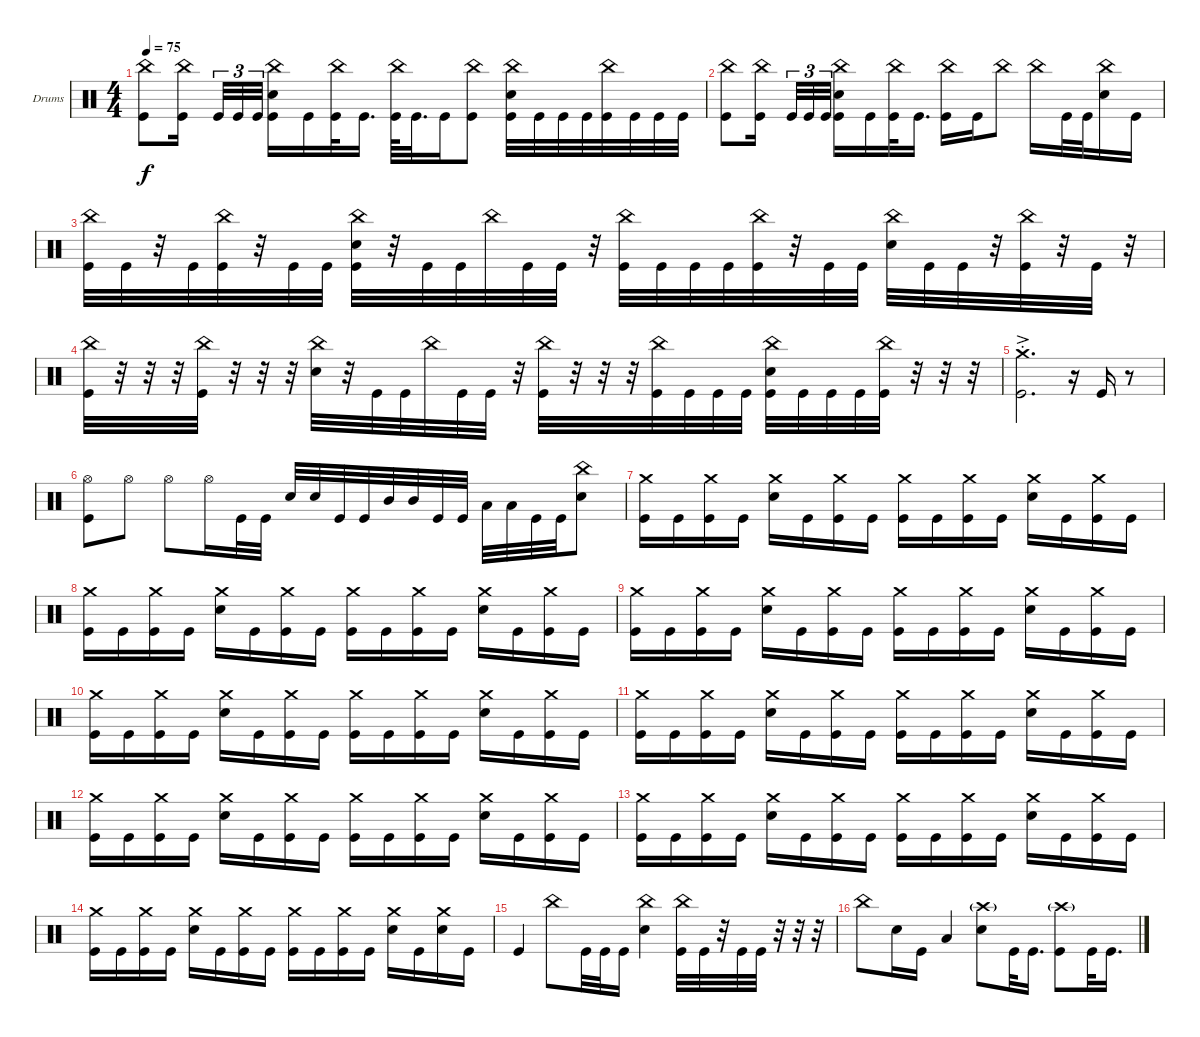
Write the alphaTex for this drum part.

\bracketExtendMode groupsimilarinstruments
\firstSystemTrackNameOrientation horizontal
\otherSystemsTrackNameOrientation horizontal
\track ("Drumkit" "Drums") {instrument percussion}
\staff {score}
\articulation defaults
\ts (4 4)
\beaming (8 2 2 2 2)
\tempo 75
\clef neutral
\ks c
("Kick (hit)" "China (hit)").8{dy f} ("Kick (hit)" "China (hit)").16 "Kick (hit)".32{tu (3 2)} "Kick (hit)".32{tu (3 2)} "Kick (hit)".32{tu (3 2)} ("Kick (hit)" "China (hit)" "Snare (hit) 2").16 "Kick (hit)".16 ("Kick (hit)" "China (hit)").32 "Kick (hit)".16{d} ("Kick (hit)" "China (hit)").64 "Kick (hit)".32{d} "Kick (hit)".16 ("Kick (hit)" "China (hit)").8 ("China (hit)" "Kick (hit)" "Snare (hit) 2").32 "Kick (hit)".32 "Kick (hit)".32 "Kick (hit)".32 ("Kick (hit)" "China (hit)").32 "Kick (hit)".32 "Kick (hit)".32 "Kick (hit)".32 |
("Kick (hit)" "China (hit)").8 ("Kick (hit)" "China (hit)").16 "Kick (hit)".32{tu (3 2)} "Kick (hit)".32{tu (3 2)} "Kick (hit)".32{tu (3 2)} ("Kick (hit)" "China (hit)" "Snare (hit) 2").16 "Kick (hit)".16 ("Kick (hit)" "China (hit)").32 "Kick (hit)".16{d} ("Kick (hit)" "China (hit)").16 "Kick (hit)".16 "China (hit)".8 "China (hit)".16 "Kick (hit)".32 "Kick (hit)".32 ("China (hit)" "Snare (hit) 2").16 "Kick (hit)".16 |
("Kick (hit)" "China (hit)").32 "Kick (hit)".32 r.32 "Kick (hit)".32 ("Kick (hit)" "China (hit)").32 r.32 "Kick (hit)".32 "Kick (hit)".32 ("Kick (hit)" "China (hit)" "Snare (hit) 2").32 r.32 "Kick (hit)".32 "Kick (hit)".32 "China (hit)".32 "Kick (hit)".32 "Kick (hit)".32 r.32 ("China (hit)" "Kick (hit)").32 "Kick (hit)".32 "Kick (hit)".32 "Kick (hit)".32 ("China (hit)" "Kick (hit)").32 r.32 "Kick (hit)".32 "Kick (hit)".32 ("China (hit)" "Snare (hit) 2").32 "Kick (hit)".32 "Kick (hit)".32 r.32 ("China (hit)" "Kick (hit)").32 r.32 "Kick (hit)".32 r.32 |
("Kick (hit)" "China (hit)").32 r.32 r.32 r.32 ("Kick (hit)" "China (hit)").32 r.32 r.32 r.32 ("China (hit)" "Snare (hit) 2").32 r.32 "Kick (hit)".32 "Kick (hit)".32 "China (hit)".32 "Kick (hit)".32 "Kick (hit)".32 r.32 ("China (hit)" "Kick (hit)").32 r.32 r.32 r.32 ("China (hit)" "Kick (hit)").32 "Kick (hit)".32 "Kick (hit)".32 "Kick (hit)".32 ("China (hit)" "Snare (hit) 2" "Kick (hit)").32 "Kick (hit)".32 "Kick (hit)".32 "Kick (hit)".32 ("China (hit)" "Kick (hit)").32 r.32 r.32 r.32 |
("Kick (hit)" "Crash medium (hit)"{ac st}).2{d} r.16 "Kick (hit)".16 r.8 |
("Kick (hit)" "Hi-Hat (open)").8 "Hi-Hat (open)".8 "Hi-Hat (open)".8 "Hi-Hat (open)".16 "Kick (hit)".32 "Kick (hit)".32 "Snare (hit) 2".32 "Snare (hit) 2".32 "Kick (hit)".32 "Kick (hit)".32 "Mid Tom (hit)".32 "Mid Tom (hit)".32 "Kick (hit)".32 "Kick (hit)".32 "Low Tom (hit)".32 "Low Tom (hit)".32 "Kick (hit)".32 "Kick (hit)".32 ("Snare (hit) 2" "China (hit)").8 |
("Kick (hit)" "Crash medium (hit)").16 "Kick (hit)".16 ("Kick (hit)" "Crash medium (hit)").16 "Kick (hit)".16 ("Snare (hit) 2" "Crash medium (hit)").16 "Kick (hit)".16 ("Kick (hit)" "Crash medium (hit)").16 "Kick (hit)".16 ("Kick (hit)" "Crash medium (hit)").16 "Kick (hit)".16 ("Kick (hit)" "Crash medium (hit)").16 "Kick (hit)".16 ("Snare (hit) 2" "Crash medium (hit)").16 "Kick (hit)".16 ("Kick (hit)" "Crash medium (hit)").16 "Kick (hit)".16 |
("Kick (hit)" "Crash medium (hit)").16 "Kick (hit)".16 ("Kick (hit)" "Crash medium (hit)").16 "Kick (hit)".16 ("Snare (hit) 2" "Crash medium (hit)").16 "Kick (hit)".16 ("Kick (hit)" "Crash medium (hit)").16 "Kick (hit)".16 ("Kick (hit)" "Crash medium (hit)").16 "Kick (hit)".16 ("Kick (hit)" "Crash medium (hit)").16 "Kick (hit)".16 ("Snare (hit) 2" "Crash medium (hit)").16 "Kick (hit)".16 ("Kick (hit)" "Crash medium (hit)").16 "Kick (hit)".16 |
("Kick (hit)" "Crash medium (hit)").16 "Kick (hit)".16 ("Kick (hit)" "Crash medium (hit)").16 "Kick (hit)".16 ("Snare (hit) 2" "Crash medium (hit)").16 "Kick (hit)".16 ("Kick (hit)" "Crash medium (hit)").16 "Kick (hit)".16 ("Kick (hit)" "Crash medium (hit)").16 "Kick (hit)".16 ("Kick (hit)" "Crash medium (hit)").16 "Kick (hit)".16 ("Snare (hit) 2" "Crash medium (hit)").16 "Kick (hit)".16 ("Kick (hit)" "Crash medium (hit)").16 "Kick (hit)".16 |
("Kick (hit)" "Crash medium (hit)").16 "Kick (hit)".16 ("Kick (hit)" "Crash medium (hit)").16 "Kick (hit)".16 ("Snare (hit) 2" "Crash medium (hit)").16 "Kick (hit)".16 ("Kick (hit)" "Crash medium (hit)").16 "Kick (hit)".16 ("Kick (hit)" "Crash medium (hit)").16 "Kick (hit)".16 ("Kick (hit)" "Crash medium (hit)").16 "Kick (hit)".16 ("Snare (hit) 2" "Crash medium (hit)").16 "Kick (hit)".16 ("Kick (hit)" "Crash medium (hit)").16 "Kick (hit)".16 |
("Kick (hit)" "Crash medium (hit)").16 "Kick (hit)".16 ("Kick (hit)" "Crash medium (hit)").16 "Kick (hit)".16 ("Snare (hit) 2" "Crash medium (hit)").16 "Kick (hit)".16 ("Kick (hit)" "Crash medium (hit)").16 "Kick (hit)".16 ("Kick (hit)" "Crash medium (hit)").16 "Kick (hit)".16 ("Kick (hit)" "Crash medium (hit)").16 "Kick (hit)".16 ("Snare (hit) 2" "Crash medium (hit)").16 "Kick (hit)".16 ("Kick (hit)" "Crash medium (hit)").16 "Kick (hit)".16 |
("Kick (hit)" "Crash medium (hit)").16 "Kick (hit)".16 ("Kick (hit)" "Crash medium (hit)").16 "Kick (hit)".16 ("Snare (hit) 2" "Crash medium (hit)").16 "Kick (hit)".16 ("Kick (hit)" "Crash medium (hit)").16 "Kick (hit)".16 ("Kick (hit)" "Crash medium (hit)").16 "Kick (hit)".16 ("Kick (hit)" "Crash medium (hit)").16 "Kick (hit)".16 ("Snare (hit) 2" "Crash medium (hit)").16 "Kick (hit)".16 ("Kick (hit)" "Crash medium (hit)").16 "Kick (hit)".16 |
("Kick (hit)" "Crash medium (hit)").16 "Kick (hit)".16 ("Kick (hit)" "Crash medium (hit)").16 "Kick (hit)".16 ("Snare (hit) 2" "Crash medium (hit)").16 "Kick (hit)".16 ("Kick (hit)" "Crash medium (hit)").16 "Kick (hit)".16 ("Kick (hit)" "Crash medium (hit)").16 "Kick (hit)".16 ("Kick (hit)" "Crash medium (hit)").16 "Kick (hit)".16 ("Snare (hit) 2" "Crash medium (hit)").16 "Kick (hit)".16 ("Kick (hit)" "Crash medium (hit)").16 "Kick (hit)".16 |
("Kick (hit)" "Crash medium (hit)").16 "Kick (hit)".16 ("Kick (hit)" "Crash medium (hit)").16 "Kick (hit)".16 ("Snare (hit) 2" "Crash medium (hit)").16 "Kick (hit)".16 ("Kick (hit)" "Crash medium (hit)").16 "Kick (hit)".16 ("Kick (hit)" "Crash medium (hit)").16 "Kick (hit)".16 ("Kick (hit)" "Crash medium (hit)").16 "Kick (hit)".16 ("Snare (hit) 2" "Crash medium (hit)").16 "Kick (hit)".16 ("Crash medium (hit)" "Snare (hit) 2").16 "Kick (hit)".16 |
"Kick (hit)".4 "China (hit)".8 "Kick (hit)".32 "Kick (hit)".32 "Kick (hit)".16 ("China (hit)" "Snare (hit) 2").4 ("Kick (hit)" "China (hit)").32 "Kick (hit)".32 r.32 "Kick (hit)".32 "Kick (hit)".32 r.32 r.32 r.32 |
"China (hit)".8 "Snare (hit) 2".16 "Kick (hit)".16 "Low Tom (hit)".4 ("Snare (hit) 2" "Crash high (hit)"{g}).8 "Kick (hit)".32 "Kick (hit)".16{d} ("Crash high (hit)"{g} "Kick (hit)").8 "Kick (hit)".32 "Kick (hit)".16{d}
